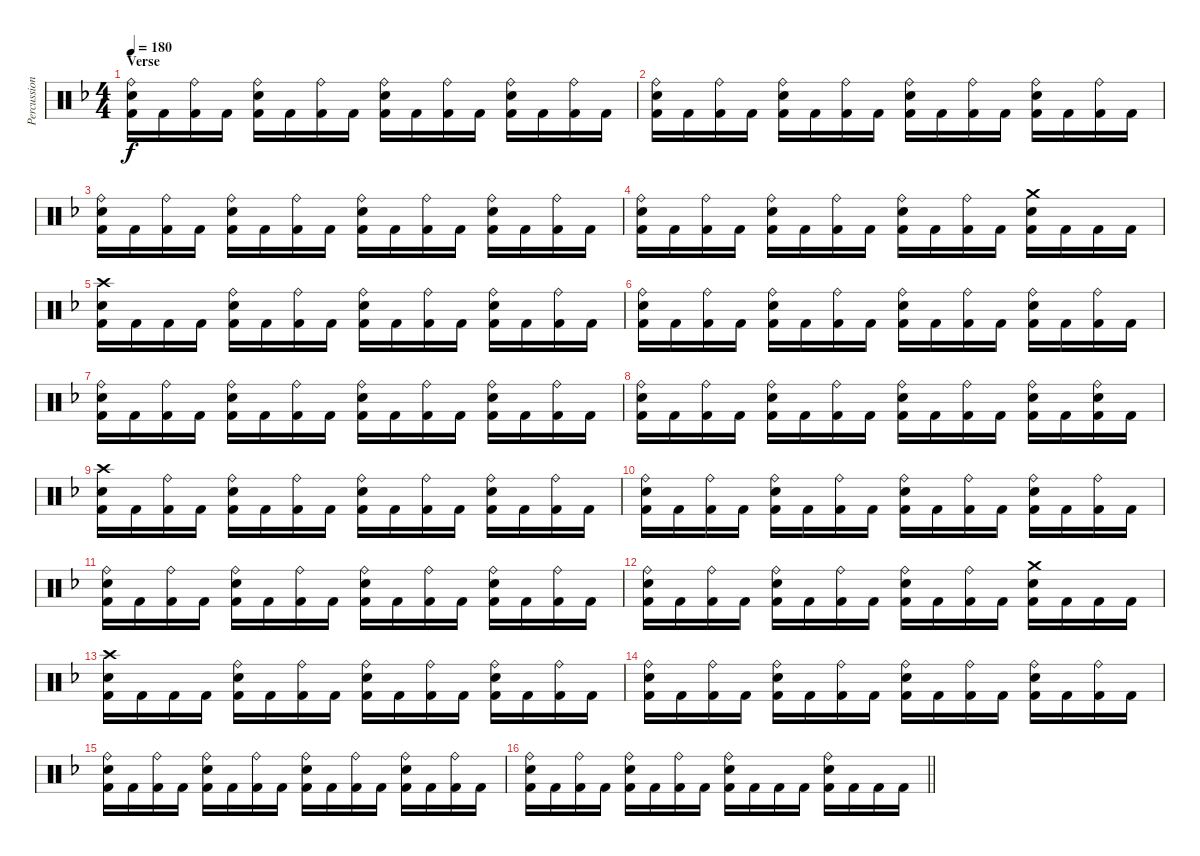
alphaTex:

\track ("Percussion" "Percussion") {instrument percussion}
\staff {score}
\articulation defaults
\ts (4 4)
\section ("" "Verse")
\tempo 180
\clef neutral
\ks dminor
("Ride (bell)" "Snare (hit) 2" "Kick (hit) 2").16{dy f} "Kick (hit) 2".16 ("Ride (bell)" "Kick (hit) 2").16 "Kick (hit) 2".16 ("Ride (bell)" "Snare (hit) 2" "Kick (hit) 2").16 "Kick (hit) 2".16 ("Ride (bell)" "Kick (hit) 2").16 "Kick (hit) 2".16 ("Ride (bell)" "Snare (hit) 2" "Kick (hit) 2").16 "Kick (hit) 2".16 ("Ride (bell)" "Kick (hit) 2").16 "Kick (hit) 2".16 ("Ride (bell)" "Snare (hit) 2" "Kick (hit) 2").16 "Kick (hit) 2".16 ("Ride (bell)" "Kick (hit) 2").16 "Kick (hit) 2".16 |
("Ride (bell)" "Snare (hit) 2" "Kick (hit) 2").16 "Kick (hit) 2".16 ("Ride (bell)" "Kick (hit) 2").16 "Kick (hit) 2".16 ("Ride (bell)" "Snare (hit) 2" "Kick (hit) 2").16 "Kick (hit) 2".16 ("Ride (bell)" "Kick (hit) 2").16 "Kick (hit) 2".16 ("Ride (bell)" "Snare (hit) 2" "Kick (hit) 2").16 "Kick (hit) 2".16 ("Ride (bell)" "Kick (hit) 2").16 "Kick (hit) 2".16 ("Ride (bell)" "Snare (hit) 2" "Kick (hit) 2").16 "Kick (hit) 2".16 ("Ride (bell)" "Kick (hit) 2").16 "Kick (hit) 2".16 |
("Ride (bell)" "Snare (hit) 2" "Kick (hit) 2").16 "Kick (hit) 2".16 ("Ride (bell)" "Kick (hit) 2").16 "Kick (hit) 2".16 ("Ride (bell)" "Snare (hit) 2" "Kick (hit) 2").16 "Kick (hit) 2".16 ("Ride (bell)" "Kick (hit) 2").16 "Kick (hit) 2".16 ("Ride (bell)" "Snare (hit) 2" "Kick (hit) 2").16 "Kick (hit) 2".16 ("Ride (bell)" "Kick (hit) 2").16 "Kick (hit) 2".16 ("Ride (bell)" "Snare (hit) 2" "Kick (hit) 2").16 "Kick (hit) 2".16 ("Ride (bell)" "Kick (hit) 2").16 "Kick (hit) 2".16 |
("Ride (bell)" "Snare (hit) 2" "Kick (hit) 2").16 "Kick (hit) 2".16 ("Ride (bell)" "Kick (hit) 2").16 "Kick (hit) 2".16 ("Ride (bell)" "Snare (hit) 2" "Kick (hit) 2").16 "Kick (hit) 2".16 ("Ride (bell)" "Kick (hit) 2").16 "Kick (hit) 2".16 ("Ride (bell)" "Snare (hit) 2" "Kick (hit) 2").16 "Kick (hit) 2".16 ("Ride (bell)" "Kick (hit) 2").16 "Kick (hit) 2".16 ("Crash medium (hit)" "Snare (hit) 2" "Kick (hit) 2").16 "Kick (hit) 2".16 "Kick (hit) 2".16 "Kick (hit) 2".16 |
("Crash high (hit)" "Snare (hit) 2" "Kick (hit) 2").16 "Kick (hit) 2".16 "Kick (hit) 2".16 "Kick (hit) 2".16 ("Ride (bell)" "Snare (hit) 2" "Kick (hit) 2").16 "Kick (hit) 2".16 ("Ride (bell)" "Kick (hit) 2").16 "Kick (hit) 2".16 ("Ride (bell)" "Snare (hit) 2" "Kick (hit) 2").16 "Kick (hit) 2".16 ("Ride (bell)" "Kick (hit) 2").16 "Kick (hit) 2".16 ("Ride (bell)" "Snare (hit) 2" "Kick (hit) 2").16 "Kick (hit) 2".16 ("Ride (bell)" "Kick (hit) 2").16 "Kick (hit) 2".16 |
("Ride (bell)" "Snare (hit) 2" "Kick (hit) 2").16 "Kick (hit) 2".16 ("Ride (bell)" "Kick (hit) 2").16 "Kick (hit) 2".16 ("Ride (bell)" "Snare (hit) 2" "Kick (hit) 2").16 "Kick (hit) 2".16 ("Ride (bell)" "Kick (hit) 2").16 "Kick (hit) 2".16 ("Ride (bell)" "Snare (hit) 2" "Kick (hit) 2").16 "Kick (hit) 2".16 ("Ride (bell)" "Kick (hit) 2").16 "Kick (hit) 2".16 ("Ride (bell)" "Snare (hit) 2" "Kick (hit) 2").16 "Kick (hit) 2".16 ("Ride (bell)" "Kick (hit) 2").16 "Kick (hit) 2".16 |
("Ride (bell)" "Snare (hit) 2" "Kick (hit) 2").16 "Kick (hit) 2".16 ("Ride (bell)" "Kick (hit) 2").16 "Kick (hit) 2".16 ("Ride (bell)" "Snare (hit) 2" "Kick (hit) 2").16 "Kick (hit) 2".16 ("Ride (bell)" "Kick (hit) 2").16 "Kick (hit) 2".16 ("Ride (bell)" "Snare (hit) 2" "Kick (hit) 2").16 "Kick (hit) 2".16 ("Ride (bell)" "Kick (hit) 2").16 "Kick (hit) 2".16 ("Ride (bell)" "Snare (hit) 2" "Kick (hit) 2").16 "Kick (hit) 2".16 ("Ride (bell)" "Kick (hit) 2").16 "Kick (hit) 2".16 |
("Ride (bell)" "Snare (hit) 2" "Kick (hit) 2").16 "Kick (hit) 2".16 ("Ride (bell)" "Kick (hit) 2").16 "Kick (hit) 2".16 ("Ride (bell)" "Snare (hit) 2" "Kick (hit) 2").16 "Kick (hit) 2".16 ("Ride (bell)" "Kick (hit) 2").16 "Kick (hit) 2".16 ("Ride (bell)" "Snare (hit) 2" "Kick (hit) 2").16 "Kick (hit) 2".16 ("Ride (bell)" "Kick (hit) 2").16 "Kick (hit) 2".16 ("Ride (bell)" "Snare (hit) 2" "Kick (hit) 2").16 "Kick (hit) 2".16 ("Ride (bell)" "Snare (hit) 2" "Kick (hit) 2").16 "Kick (hit) 2".16 |
("Crash high (hit)" "Snare (hit) 2" "Kick (hit) 2").16 "Kick (hit) 2".16 ("Ride (bell)" "Kick (hit) 2").16 "Kick (hit) 2".16 ("Ride (bell)" "Snare (hit) 2" "Kick (hit) 2").16 "Kick (hit) 2".16 ("Ride (bell)" "Kick (hit) 2").16 "Kick (hit) 2".16 ("Ride (bell)" "Snare (hit) 2" "Kick (hit) 2").16 "Kick (hit) 2".16 ("Ride (bell)" "Kick (hit) 2").16 "Kick (hit) 2".16 ("Ride (bell)" "Snare (hit) 2" "Kick (hit) 2").16 "Kick (hit) 2".16 ("Ride (bell)" "Kick (hit) 2").16 "Kick (hit) 2".16 |
("Ride (bell)" "Snare (hit) 2" "Kick (hit) 2").16 "Kick (hit) 2".16 ("Ride (bell)" "Kick (hit) 2").16 "Kick (hit) 2".16 ("Ride (bell)" "Snare (hit) 2" "Kick (hit) 2").16 "Kick (hit) 2".16 ("Ride (bell)" "Kick (hit) 2").16 "Kick (hit) 2".16 ("Ride (bell)" "Snare (hit) 2" "Kick (hit) 2").16 "Kick (hit) 2".16 ("Ride (bell)" "Kick (hit) 2").16 "Kick (hit) 2".16 ("Ride (bell)" "Snare (hit) 2" "Kick (hit) 2").16 "Kick (hit) 2".16 ("Ride (bell)" "Kick (hit) 2").16 "Kick (hit) 2".16 |
("Ride (bell)" "Snare (hit) 2" "Kick (hit) 2").16 "Kick (hit) 2".16 ("Ride (bell)" "Kick (hit) 2").16 "Kick (hit) 2".16 ("Ride (bell)" "Snare (hit) 2" "Kick (hit) 2").16 "Kick (hit) 2".16 ("Ride (bell)" "Kick (hit) 2").16 "Kick (hit) 2".16 ("Ride (bell)" "Snare (hit) 2" "Kick (hit) 2").16 "Kick (hit) 2".16 ("Ride (bell)" "Kick (hit) 2").16 "Kick (hit) 2".16 ("Ride (bell)" "Snare (hit) 2" "Kick (hit) 2").16 "Kick (hit) 2".16 ("Ride (bell)" "Kick (hit) 2").16 "Kick (hit) 2".16 |
("Ride (bell)" "Snare (hit) 2" "Kick (hit) 2").16 "Kick (hit) 2".16 ("Ride (bell)" "Kick (hit) 2").16 "Kick (hit) 2".16 ("Ride (bell)" "Snare (hit) 2" "Kick (hit) 2").16 "Kick (hit) 2".16 ("Ride (bell)" "Kick (hit) 2").16 "Kick (hit) 2".16 ("Ride (bell)" "Snare (hit) 2" "Kick (hit) 2").16 "Kick (hit) 2".16 ("Ride (bell)" "Kick (hit) 2").16 "Kick (hit) 2".16 ("Crash medium (hit)" "Snare (hit) 2" "Kick (hit) 2").16 "Kick (hit) 2".16 "Kick (hit) 2".16 "Kick (hit) 2".16 |
("Crash high (hit)" "Snare (hit) 2" "Kick (hit) 2").16 "Kick (hit) 2".16 "Kick (hit) 2".16 "Kick (hit) 2".16 ("Ride (bell)" "Snare (hit) 2" "Kick (hit) 2").16 "Kick (hit) 2".16 ("Ride (bell)" "Kick (hit) 2").16 "Kick (hit) 2".16 ("Ride (bell)" "Snare (hit) 2" "Kick (hit) 2").16 "Kick (hit) 2".16 ("Ride (bell)" "Kick (hit) 2").16 "Kick (hit) 2".16 ("Ride (bell)" "Snare (hit) 2" "Kick (hit) 2").16 "Kick (hit) 2".16 ("Ride (bell)" "Kick (hit) 2").16 "Kick (hit) 2".16 |
("Ride (bell)" "Snare (hit) 2" "Kick (hit) 2").16 "Kick (hit) 2".16 ("Ride (bell)" "Kick (hit) 2").16 "Kick (hit) 2".16 ("Ride (bell)" "Snare (hit) 2" "Kick (hit) 2").16 "Kick (hit) 2".16 ("Ride (bell)" "Kick (hit) 2").16 "Kick (hit) 2".16 ("Ride (bell)" "Snare (hit) 2" "Kick (hit) 2").16 "Kick (hit) 2".16 ("Ride (bell)" "Kick (hit) 2").16 "Kick (hit) 2".16 ("Ride (bell)" "Snare (hit) 2" "Kick (hit) 2").16 "Kick (hit) 2".16 ("Ride (bell)" "Kick (hit) 2").16 "Kick (hit) 2".16 |
("Ride (bell)" "Snare (hit) 2" "Kick (hit) 2").16 "Kick (hit) 2".16 ("Ride (bell)" "Kick (hit) 2").16 "Kick (hit) 2".16 ("Ride (bell)" "Snare (hit) 2" "Kick (hit) 2").16 "Kick (hit) 2".16 ("Ride (bell)" "Kick (hit) 2").16 "Kick (hit) 2".16 ("Ride (bell)" "Snare (hit) 2" "Kick (hit) 2").16 "Kick (hit) 2".16 ("Ride (bell)" "Kick (hit) 2").16 "Kick (hit) 2".16 ("Ride (bell)" "Snare (hit) 2" "Kick (hit) 2").16 "Kick (hit) 2".16 ("Ride (bell)" "Kick (hit) 2").16 "Kick (hit) 2".16 |
\barLineRight lightlight
("Ride (bell)" "Snare (hit) 2" "Kick (hit) 2").16 "Kick (hit) 2".16 ("Ride (bell)" "Kick (hit) 2").16 "Kick (hit) 2".16 ("Ride (bell)" "Snare (hit) 2" "Kick (hit) 2").16 "Kick (hit) 2".16 ("Ride (bell)" "Kick (hit) 2").16 "Kick (hit) 2".16 ("Ride (bell)" "Snare (hit) 2" "Kick (hit) 2").16 "Kick (hit) 2".16 "Kick (hit) 2".16 "Kick (hit) 2".16 ("Ride (bell)" "Snare (hit) 2" "Kick (hit) 2").16 "Kick (hit) 2".16 "Kick (hit) 2".16 "Kick (hit) 2".16
